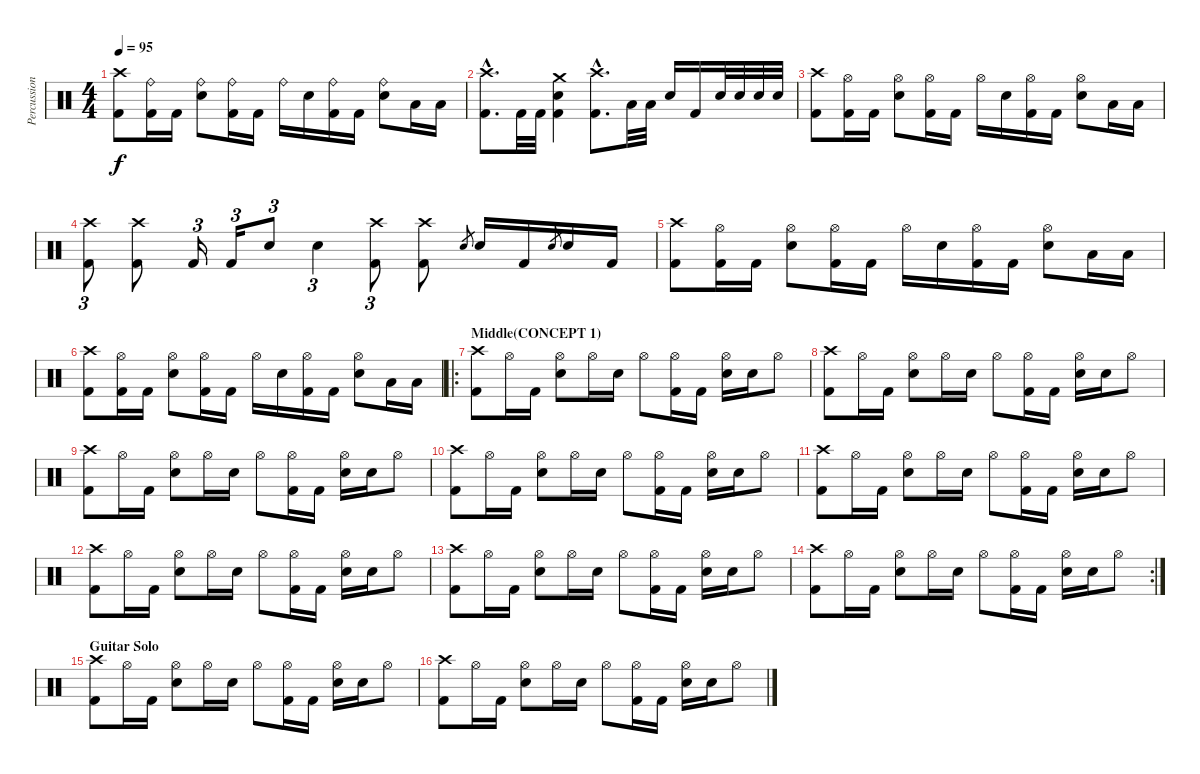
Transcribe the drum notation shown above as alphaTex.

\track ("Percussion" "Percussion") {instrument percussion}
\staff {score}
\articulation defaults
\ts (4 4)
\tempo 95
\clef neutral
\ks c
("Crash high (hit)" "Kick (hit) 2").8{dy f} ("Ride (bell)" "Kick (hit) 2").16 "Kick (hit) 2".16 ("Ride (bell)" "Snare (hit) 2").8 ("Ride (bell)" "Kick (hit) 2").16 "Kick (hit) 2".16 "Ride (bell)".16 "Snare (hit) 2".16 ("Ride (bell)" "Kick (hit) 2").16 "Kick (hit) 2".16 ("Ride (bell)" "Snare (hit) 2").8 "Low Floor Tom (hit)".16 "Low Floor Tom (hit)".16 |
("Crash high (hit)"{hac} "Kick (hit) 2"{hac}).8{d} "Kick (hit) 2".32 "Kick (hit) 2".32 ("Crash medium (hit)" "Snare (hit) 2" "Kick (hit) 2").4 ("Crash high (hit)"{hac} "Kick (hit) 2"{hac}).8{d} "Low Tom (hit)".32 "Low Floor Tom (hit)".32 "Snare (hit) 2".16 "Kick (hit) 2".16 "Snare (hit) 2".32 "Snare (hit) 2".32 "Snare (hit) 2".32 "Snare (hit) 2".32 |
("Crash high (hit)" "Kick (hit) 2").8 ("Hi-Hat (open)" "Kick (hit) 2").16 "Kick (hit) 2".16 ("Hi-Hat (open)" "Snare (hit) 2").8 ("Hi-Hat (open)" "Kick (hit) 2").16 "Kick (hit) 2".16 "Hi-Hat (open)".16 "Snare (hit) 2".16 ("Hi-Hat (open)" "Kick (hit) 2").16 "Kick (hit) 2".16 ("Hi-Hat (open)" "Snare (hit) 2").8 "Low Floor Tom (hit)".16 "Low Floor Tom (hit)".16 |
("Crash high (hit)" "Kick (hit) 2").8{tu (3 2)} ("Crash high (hit)" "Kick (hit) 2").8 "Kick (hit) 2".16{tu (3 2)} "Kick (hit) 2".16{tu (3 2)} "Snare (hit) 2".8{tu (3 2)} "Snare (hit) 2".4{tu (3 2)} ("Crash high (hit)" "Kick (hit) 2").8{tu (3 2)} ("Crash high (hit)" "Kick (hit) 2").8 "Snare (hit) 2".8{gr} "Snare (hit) 2".16 "Kick (hit) 2".16 "Snare (hit) 2".8{gr} "Snare (hit) 2".16 "Kick (hit) 2".16 |
("Crash high (hit)" "Kick (hit) 2").8 ("Hi-Hat (open)" "Kick (hit) 2").16 "Kick (hit) 2".16 ("Hi-Hat (open)" "Snare (hit) 2").8 ("Hi-Hat (open)" "Kick (hit) 2").16 "Kick (hit) 2".16 "Hi-Hat (open)".16 "Snare (hit) 2".16 ("Hi-Hat (open)" "Kick (hit) 2").16 "Kick (hit) 2".16 ("Hi-Hat (open)" "Snare (hit) 2").8 "Low Floor Tom (hit)".16 "Low Floor Tom (hit)".16 |
("Crash high (hit)" "Kick (hit) 2").8 ("Hi-Hat (open)" "Kick (hit) 2").16 "Kick (hit) 2".16 ("Hi-Hat (open)" "Snare (hit) 2").8 ("Hi-Hat (open)" "Kick (hit) 2").16 "Kick (hit) 2".16 "Hi-Hat (open)".16 "Snare (hit) 2".16 ("Hi-Hat (open)" "Kick (hit) 2").16 "Kick (hit) 2".16 ("Hi-Hat (open)" "Snare (hit) 2").8 "Low Floor Tom (hit)".16 "Low Floor Tom (hit)".16 |
\ro
\section ("" "Middle(CONCEPT 1)")
("Crash high (hit)" "Kick (hit) 2").8 "Hi-Hat (open)".16 "Kick (hit) 2".16 ("Hi-Hat (open)" "Snare (hit) 2").8 "Hi-Hat (open)".16 "Snare (hit) 2".16 "Hi-Hat (open)".8 ("Hi-Hat (open)" "Kick (hit) 2").16 "Kick (hit) 2".16 ("Hi-Hat (open)" "Snare (hit) 2").16 "Snare (hit) 2".16 "Hi-Hat (open)".8 |
("Crash high (hit)" "Kick (hit) 2").8 "Hi-Hat (open)".16 "Kick (hit) 2".16 ("Hi-Hat (open)" "Snare (hit) 2").8 "Hi-Hat (open)".16 "Snare (hit) 2".16 "Hi-Hat (open)".8 ("Hi-Hat (open)" "Kick (hit) 2").16 "Kick (hit) 2".16 ("Hi-Hat (open)" "Snare (hit) 2").16 "Snare (hit) 2".16 "Hi-Hat (open)".8 |
("Crash high (hit)" "Kick (hit) 2").8 "Hi-Hat (open)".16 "Kick (hit) 2".16 ("Hi-Hat (open)" "Snare (hit) 2").8 "Hi-Hat (open)".16 "Snare (hit) 2".16 "Hi-Hat (open)".8 ("Hi-Hat (open)" "Kick (hit) 2").16 "Kick (hit) 2".16 ("Hi-Hat (open)" "Snare (hit) 2").16 "Snare (hit) 2".16 "Hi-Hat (open)".8 |
("Crash high (hit)" "Kick (hit) 2").8 "Hi-Hat (open)".16 "Kick (hit) 2".16 ("Hi-Hat (open)" "Snare (hit) 2").8 "Hi-Hat (open)".16 "Snare (hit) 2".16 "Hi-Hat (open)".8 ("Hi-Hat (open)" "Kick (hit) 2").16 "Kick (hit) 2".16 ("Hi-Hat (open)" "Snare (hit) 2").16 "Snare (hit) 2".16 "Hi-Hat (open)".8 |
("Crash high (hit)" "Kick (hit) 2").8 "Hi-Hat (open)".16 "Kick (hit) 2".16 ("Hi-Hat (open)" "Snare (hit) 2").8 "Hi-Hat (open)".16 "Snare (hit) 2".16 "Hi-Hat (open)".8 ("Hi-Hat (open)" "Kick (hit) 2").16 "Kick (hit) 2".16 ("Hi-Hat (open)" "Snare (hit) 2").16 "Snare (hit) 2".16 "Hi-Hat (open)".8 |
("Crash high (hit)" "Kick (hit) 2").8 "Hi-Hat (open)".16 "Kick (hit) 2".16 ("Hi-Hat (open)" "Snare (hit) 2").8 "Hi-Hat (open)".16 "Snare (hit) 2".16 "Hi-Hat (open)".8 ("Hi-Hat (open)" "Kick (hit) 2").16 "Kick (hit) 2".16 ("Hi-Hat (open)" "Snare (hit) 2").16 "Snare (hit) 2".16 "Hi-Hat (open)".8 |
("Crash high (hit)" "Kick (hit) 2").8 "Hi-Hat (open)".16 "Kick (hit) 2".16 ("Hi-Hat (open)" "Snare (hit) 2").8 "Hi-Hat (open)".16 "Snare (hit) 2".16 "Hi-Hat (open)".8 ("Hi-Hat (open)" "Kick (hit) 2").16 "Kick (hit) 2".16 ("Hi-Hat (open)" "Snare (hit) 2").16 "Snare (hit) 2".16 "Hi-Hat (open)".8 |
\rc 2
("Crash high (hit)" "Kick (hit) 2").8 "Hi-Hat (open)".16 "Kick (hit) 2".16 ("Hi-Hat (open)" "Snare (hit) 2").8 "Hi-Hat (open)".16 "Snare (hit) 2".16 "Hi-Hat (open)".8 ("Hi-Hat (open)" "Kick (hit) 2").16 "Kick (hit) 2".16 ("Hi-Hat (open)" "Snare (hit) 2").16 "Snare (hit) 2".16 "Hi-Hat (open)".8 |
\section ("" "Guitar Solo")
("Crash high (hit)" "Kick (hit) 2").8 "Hi-Hat (open)".16 "Kick (hit) 2".16 ("Hi-Hat (open)" "Snare (hit) 2").8 "Hi-Hat (open)".16 "Snare (hit) 2".16 "Hi-Hat (open)".8 ("Hi-Hat (open)" "Kick (hit) 2").16 "Kick (hit) 2".16 ("Hi-Hat (open)" "Snare (hit) 2").16 "Snare (hit) 2".16 "Hi-Hat (open)".8 |
("Crash high (hit)" "Kick (hit) 2").8 "Hi-Hat (open)".16 "Kick (hit) 2".16 ("Hi-Hat (open)" "Snare (hit) 2").8 "Hi-Hat (open)".16 "Snare (hit) 2".16 "Hi-Hat (open)".8 ("Hi-Hat (open)" "Kick (hit) 2").16 "Kick (hit) 2".16 ("Hi-Hat (open)" "Snare (hit) 2").16 "Snare (hit) 2".16 "Hi-Hat (open)".8
